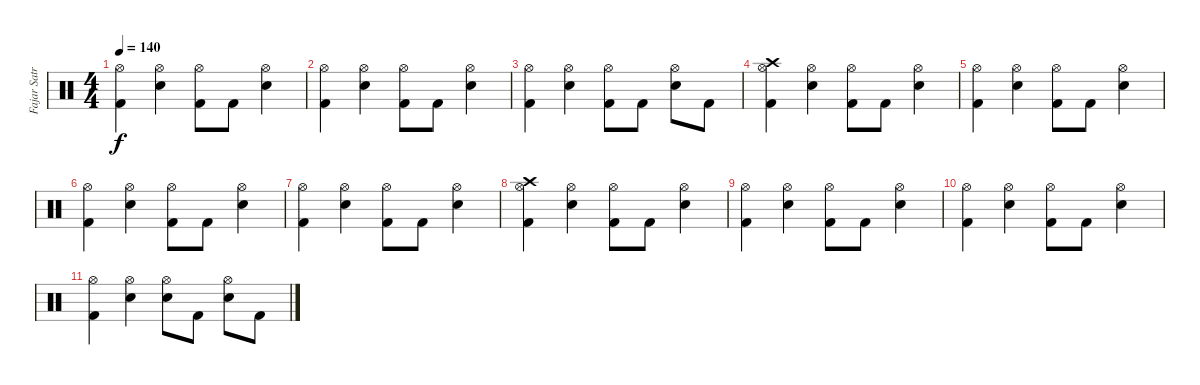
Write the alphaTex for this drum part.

\track ("Fajar Satriana" "Fajar Satr") {instrument percussion}
\staff {score}
\articulation defaults
\ts (4 4)
\tempo 140
\clef neutral
\ks c
("Hi-Hat (open)" "Kick (hit) 2").4{dy f} ("Hi-Hat (open)" "Electric Snare (hit)").4 ("Hi-Hat (open)" "Kick (hit) 2").8 "Kick (hit) 2".8 ("Hi-Hat (open)" "Electric Snare (hit)").4 |
("Hi-Hat (open)" "Kick (hit) 2").4 ("Hi-Hat (open)" "Electric Snare (hit)").4 ("Hi-Hat (open)" "Kick (hit) 2").8 "Kick (hit) 2".8 ("Hi-Hat (open)" "Electric Snare (hit)").4 |
("Hi-Hat (open)" "Kick (hit) 2").4 ("Hi-Hat (open)" "Electric Snare (hit)").4 ("Hi-Hat (open)" "Kick (hit) 2").8 "Kick (hit) 2".8 ("Hi-Hat (open)" "Electric Snare (hit)").8 "Kick (hit) 2".8 |
("Crash high (hit)" "Hi-Hat (open)" "Kick (hit) 2").4 ("Hi-Hat (open)" "Electric Snare (hit)").4 ("Hi-Hat (open)" "Kick (hit) 2").8 "Kick (hit) 2".8 ("Hi-Hat (open)" "Electric Snare (hit)").4 |
("Hi-Hat (open)" "Kick (hit) 2").4 ("Hi-Hat (open)" "Electric Snare (hit)").4 ("Hi-Hat (open)" "Kick (hit) 2").8 "Kick (hit) 2".8 ("Hi-Hat (open)" "Electric Snare (hit)").4 |
("Hi-Hat (open)" "Kick (hit) 2").4 ("Hi-Hat (open)" "Electric Snare (hit)").4 ("Hi-Hat (open)" "Kick (hit) 2").8 "Kick (hit) 2".8 ("Hi-Hat (open)" "Electric Snare (hit)").4 |
("Hi-Hat (open)" "Kick (hit) 2").4 ("Hi-Hat (open)" "Electric Snare (hit)").4 ("Hi-Hat (open)" "Kick (hit) 2").8 "Kick (hit) 2".8 ("Hi-Hat (open)" "Electric Snare (hit)").4 |
("Crash high (hit)" "Hi-Hat (open)" "Kick (hit) 2").4 ("Hi-Hat (open)" "Electric Snare (hit)").4 ("Hi-Hat (open)" "Kick (hit) 2").8 "Kick (hit) 2".8 ("Hi-Hat (open)" "Electric Snare (hit)").4 |
("Hi-Hat (open)" "Kick (hit) 2").4 ("Hi-Hat (open)" "Electric Snare (hit)").4 ("Hi-Hat (open)" "Kick (hit) 2").8 "Kick (hit) 2".8 ("Hi-Hat (open)" "Electric Snare (hit)").4 |
("Hi-Hat (open)" "Kick (hit) 2").4 ("Hi-Hat (open)" "Electric Snare (hit)").4 ("Hi-Hat (open)" "Kick (hit) 2").8 "Kick (hit) 2".8 ("Hi-Hat (open)" "Electric Snare (hit)").4 |
("Hi-Hat (open)" "Kick (hit) 2").4 ("Hi-Hat (open)" "Electric Snare (hit)").4 ("Hi-Hat (open)" "Electric Snare (hit)").8 "Kick (hit) 2".8 ("Hi-Hat (open)" "Electric Snare (hit)").8 "Kick (hit) 2".8
